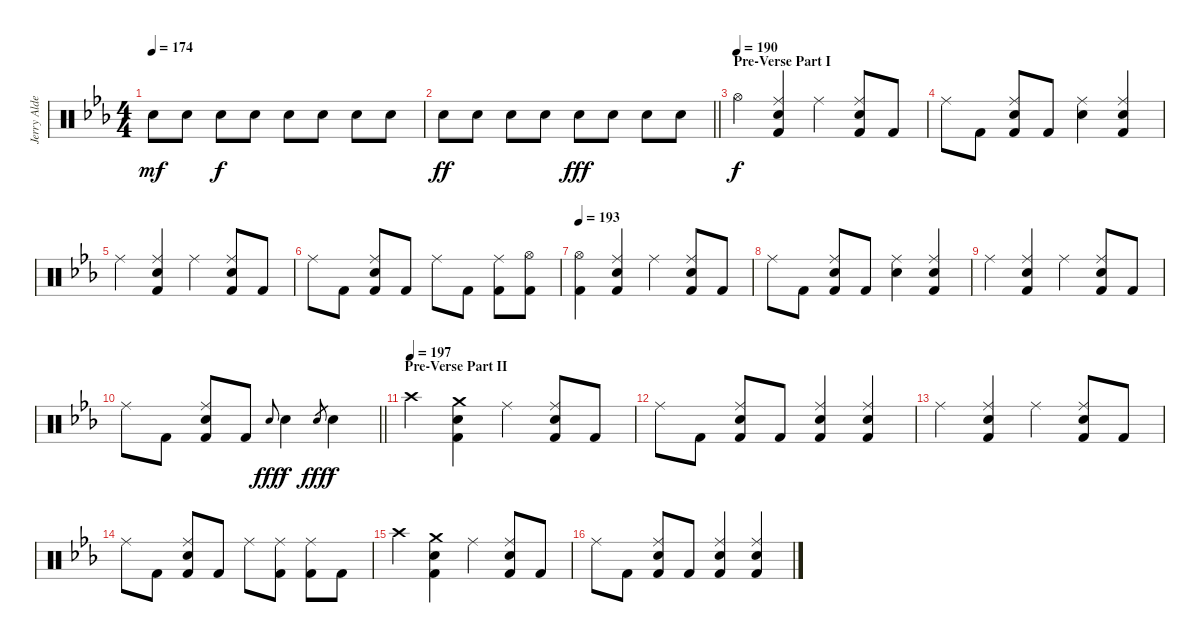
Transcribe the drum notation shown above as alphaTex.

\track ("Jerry Alder - Drums" "Jerry Alde") {instrument percussion}
\staff {score}
\articulation defaults
\ts (4 4)
\tempo 174
\clef neutral
\ks eb "Snare (hit) 2".8{dy mf} "Snare (hit) 2".8 "Snare (hit) 2".8{dy f} "Snare (hit) 2".8 "Snare (hit) 2".8 "Snare (hit) 2".8 "Snare (hit) 2".8 "Snare (hit) 2".8
|
\barLineRight lightlight "Snare (hit) 2".8{dy ff} "Snare (hit) 2".8 "Snare (hit) 2".8 "Snare (hit) 2".8 "Snare (hit) 2".8{dy fff} "Snare (hit) 2".8 "Snare (hit) 2".8 "Snare (hit) 2".8
|
\section ("" "Pre-Verse Part I")
\tempo (190)
"Hi-Hat (open)".4{dy f} ("Ride (middle)" "Snare (hit) 2" "Kick (hit) 2").4 "Ride (middle)".4 ("Ride (middle)" "Snare (hit) 2" "Kick (hit) 2").8 "Kick (hit) 2".8 |
"Ride (middle)".8 "Kick (hit) 2".8 ("Ride (middle)" "Snare (hit) 2" "Kick (hit) 2").8 "Kick (hit) 2".8 ("Ride (middle)" "Snare (hit) 2").4 ("Ride (middle)" "Snare (hit) 2" "Kick (hit) 2").4 |
"Ride (middle)".4 ("Ride (middle)" "Snare (hit) 2" "Kick (hit) 2").4 "Ride (middle)".4 ("Ride (middle)" "Snare (hit) 2" "Kick (hit) 2").8 "Kick (hit) 2".8 |
"Ride (middle)".8 "Kick (hit) 2".8 ("Ride (middle)" "Snare (hit) 2" "Kick (hit) 2").8 "Kick (hit) 2".8 "Ride (middle)".8 "Kick (hit) 2".8 ("Ride (middle)" "Kick (hit) 2").8 ("Hi-Hat (open)" "Kick (hit) 2").8 |
\tempo 193
("Hi-Hat (open)" "Kick (hit) 2").4 ("Ride (middle)" "Snare (hit) 2" "Kick (hit) 2").4 "Ride (middle)".4 ("Ride (middle)" "Snare (hit) 2" "Kick (hit) 2").8 "Kick (hit) 2".8 |
"Ride (middle)".8 "Kick (hit) 2".8 ("Ride (middle)" "Snare (hit) 2" "Kick (hit) 2").8 "Kick (hit) 2".8 ("Ride (middle)" "Snare (hit) 2").4 ("Ride (middle)" "Snare (hit) 2" "Kick (hit) 2").4 |
"Ride (middle)".4 ("Ride (middle)" "Snare (hit) 2" "Kick (hit) 2").4 "Ride (middle)".4 ("Ride (middle)" "Snare (hit) 2" "Kick (hit) 2").8 "Kick (hit) 2".8 |
\barLineRight lightlight "Ride (middle)".8 "Kick (hit) 2".8
("Ride (middle)" "Snare (hit) 2" "Kick (hit) 2").8 "Kick (hit) 2".8 "Snare (hit) 2".8{gr onbeat dy fff} "Snare (hit) 2".4{dy f} "Snare (hit) 2".8{gr dy fff} "Snare (hit) 2".4{dy f} |
\section ("" "Pre-Verse Part II")
\tempo (197)
"Crash high (hit)".4 ("Crash medium (hit)" "Snare (hit) 2" "Kick (hit) 2").4 "Ride (middle)".4 ("Ride (middle)" "Snare (hit) 2" "Kick (hit) 2").8 "Kick (hit) 2".8 |
"Ride (middle)".8 "Kick (hit) 2".8 ("Ride (middle)" "Snare (hit) 2" "Kick (hit) 2").8 "Kick (hit) 2".8 ("Ride (middle)" "Snare (hit) 2" "Kick (hit) 2").4 ("Ride (middle)" "Snare (hit) 2" "Kick (hit) 2").4 |
"Ride (middle)".4 ("Ride (middle)" "Snare (hit) 2" "Kick (hit) 2").4 "Ride (middle)".4 ("Ride (middle)" "Snare (hit) 2" "Kick (hit) 2").8 "Kick (hit) 2".8 |
"Ride (middle)".8 "Kick (hit) 2".8 ("Ride (middle)" "Snare (hit) 2" "Kick (hit) 2").8 "Kick (hit) 2".8 "Ride (middle)".8 ("Ride (middle)" "Kick (hit) 2").8 ("Ride (middle)" "Kick (hit) 2").8 "Kick (hit) 2".8 |
"Crash high (hit)".4 ("Crash medium (hit)" "Snare (hit) 2" "Kick (hit) 2").4 "Ride (middle)".4 ("Ride (middle)" "Snare (hit) 2" "Kick (hit) 2").8 "Kick (hit) 2".8 |
"Ride (middle)".8 "Kick (hit) 2".8 ("Ride (middle)" "Snare (hit) 2" "Kick (hit) 2").8 "Kick (hit) 2".8 ("Ride (middle)" "Snare (hit) 2" "Kick (hit) 2").4 ("Ride (middle)" "Snare (hit) 2" "Kick (hit) 2").4
